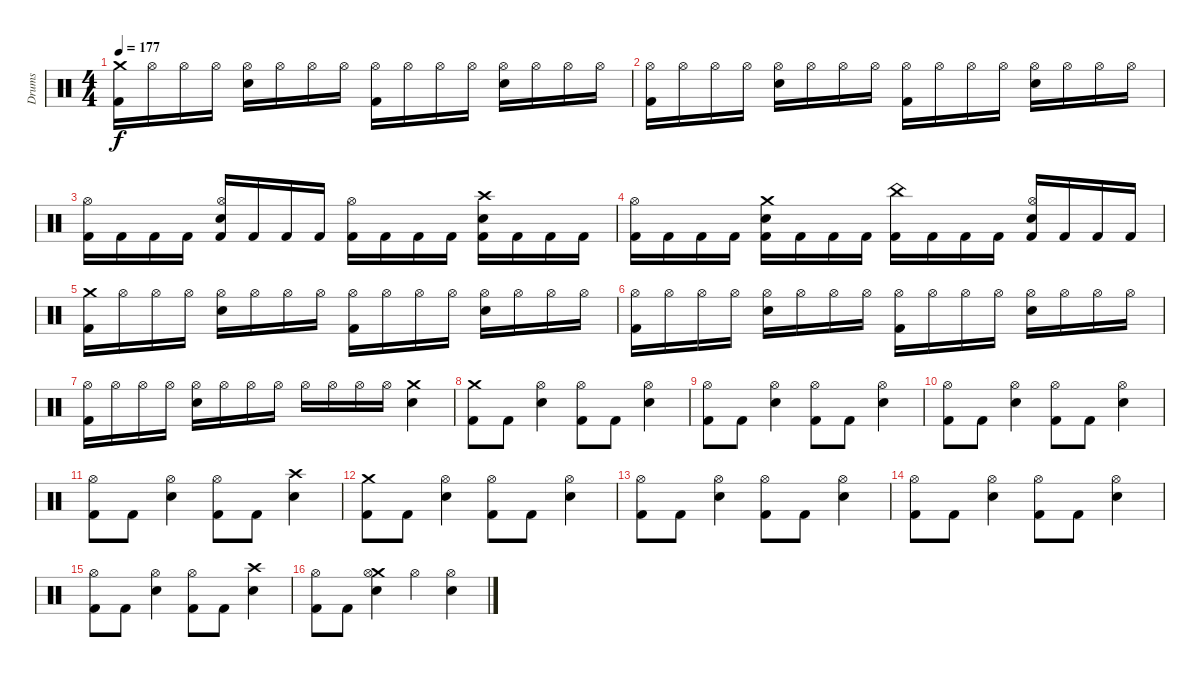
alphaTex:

\track ("Drums" "Drums") {solo instrument percussion}
\staff {score}
\articulation defaults
\ts (4 4)
\tempo 177
\clef neutral
\ks c
("Crash medium (hit)" "Kick (hit) 2").16{dy f} "Hi-Hat (open)".16 "Hi-Hat (open)".16 "Hi-Hat (open)".16 ("Hi-Hat (open)" "Snare (hit) 2").16 "Hi-Hat (open)".16 "Hi-Hat (open)".16 "Hi-Hat (open)".16 ("Hi-Hat (open)" "Kick (hit) 2").16 "Hi-Hat (open)".16 "Hi-Hat (open)".16 "Hi-Hat (open)".16 ("Hi-Hat (open)" "Snare (hit) 2").16 "Hi-Hat (open)".16 "Hi-Hat (open)".16 "Hi-Hat (open)".16 |
("Hi-Hat (open)" "Kick (hit) 2").16 "Hi-Hat (open)".16 "Hi-Hat (open)".16 "Hi-Hat (open)".16 ("Hi-Hat (open)" "Snare (hit) 2").16 "Hi-Hat (open)".16 "Hi-Hat (open)".16 "Hi-Hat (open)".16 ("Hi-Hat (open)" "Kick (hit) 2").16 "Hi-Hat (open)".16 "Hi-Hat (open)".16 "Hi-Hat (open)".16 ("Hi-Hat (open)" "Snare (hit) 2").16 "Hi-Hat (open)".16 "Hi-Hat (open)".16 "Hi-Hat (open)".16 |
("Hi-Hat (open)" "Kick (hit) 2").16 "Kick (hit) 2".16 "Kick (hit) 2".16 "Kick (hit) 2".16 ("Hi-Hat (open)" "Snare (hit) 2" "Kick (hit) 2").16 "Kick (hit) 2".16 "Kick (hit) 2".16 "Kick (hit) 2".16 ("Hi-Hat (open)" "Kick (hit) 2").16 "Kick (hit) 2".16 "Kick (hit) 2".16 "Kick (hit) 2".16 ("Crash high (hit)" "Snare (hit) 2" "Kick (hit) 2").16 "Kick (hit) 2".16 "Kick (hit) 2".16 "Kick (hit) 2".16 |
("Hi-Hat (open)" "Kick (hit) 2").16 "Kick (hit) 2".16 "Kick (hit) 2".16 "Kick (hit) 2".16 ("Crash medium (hit)" "Snare (hit) 2" "Kick (hit) 2").16 "Kick (hit) 2".16 "Kick (hit) 2".16 "Kick (hit) 2".16 ("China (hit)" "Kick (hit) 2").16 "Kick (hit) 2".16 "Kick (hit) 2".16 "Kick (hit) 2".16 ("Hi-Hat (open)" "Snare (hit) 2" "Kick (hit) 2").16 "Kick (hit) 2".16 "Kick (hit) 2".16 "Kick (hit) 2".16 |
("Crash medium (hit)" "Kick (hit) 2").16 "Hi-Hat (open)".16 "Hi-Hat (open)".16 "Hi-Hat (open)".16 ("Hi-Hat (open)" "Snare (hit) 2").16 "Hi-Hat (open)".16 "Hi-Hat (open)".16 "Hi-Hat (open)".16 ("Hi-Hat (open)" "Kick (hit) 2").16 "Hi-Hat (open)".16 "Hi-Hat (open)".16 "Hi-Hat (open)".16 ("Hi-Hat (open)" "Snare (hit) 2").16 "Hi-Hat (open)".16 "Hi-Hat (open)".16 "Hi-Hat (open)".16 |
("Hi-Hat (open)" "Kick (hit) 2").16 "Hi-Hat (open)".16 "Hi-Hat (open)".16 "Hi-Hat (open)".16 ("Hi-Hat (open)" "Snare (hit) 2").16 "Hi-Hat (open)".16 "Hi-Hat (open)".16 "Hi-Hat (open)".16 ("Hi-Hat (open)" "Kick (hit) 2").16 "Hi-Hat (open)".16 "Hi-Hat (open)".16 "Hi-Hat (open)".16 ("Hi-Hat (open)" "Snare (hit) 2").16 "Hi-Hat (open)".16 "Hi-Hat (open)".16 "Hi-Hat (open)".16 |
("Hi-Hat (open)" "Kick (hit) 2").16 "Hi-Hat (open)".16 "Hi-Hat (open)".16 "Hi-Hat (open)".16 ("Hi-Hat (open)" "Snare (hit) 2").16 "Hi-Hat (open)".16 "Hi-Hat (open)".16 "Hi-Hat (open)".16 "Hi-Hat (open)".16 "Hi-Hat (open)".16 "Hi-Hat (open)".16 "Hi-Hat (open)".16 ("Crash medium (hit)" "Snare (hit) 2").4 |
("Crash medium (hit)" "Kick (hit) 2").8 "Kick (hit) 2".8 ("Hi-Hat (open)" "Snare (hit) 2").4 ("Hi-Hat (open)" "Kick (hit) 2").8 "Kick (hit) 2".8 ("Hi-Hat (open)" "Snare (hit) 2").4 |
("Hi-Hat (open)" "Kick (hit) 2").8 "Kick (hit) 2".8 ("Hi-Hat (open)" "Snare (hit) 2").4 ("Hi-Hat (open)" "Kick (hit) 2").8 "Kick (hit) 2".8 ("Hi-Hat (open)" "Snare (hit) 2").4 |
("Hi-Hat (open)" "Kick (hit) 2").8 "Kick (hit) 2".8 ("Hi-Hat (open)" "Snare (hit) 2").4 ("Hi-Hat (open)" "Kick (hit) 2").8 "Kick (hit) 2".8 ("Hi-Hat (open)" "Snare (hit) 2").4 |
("Hi-Hat (open)" "Kick (hit) 2").8 "Kick (hit) 2".8 ("Hi-Hat (open)" "Snare (hit) 2").4 ("Hi-Hat (open)" "Kick (hit) 2").8 "Kick (hit) 2".8 ("Crash high (hit)" "Snare (hit) 2").4 |
("Crash medium (hit)" "Kick (hit) 2").8 "Kick (hit) 2".8 ("Hi-Hat (open)" "Snare (hit) 2").4 ("Hi-Hat (open)" "Kick (hit) 2").8 "Kick (hit) 2".8 ("Hi-Hat (open)" "Snare (hit) 2").4 |
("Hi-Hat (open)" "Kick (hit) 2").8 "Kick (hit) 2".8 ("Hi-Hat (open)" "Snare (hit) 2").4 ("Hi-Hat (open)" "Kick (hit) 2").8 "Kick (hit) 2".8 ("Hi-Hat (open)" "Snare (hit) 2").4 |
("Hi-Hat (open)" "Kick (hit) 2").8 "Kick (hit) 2".8 ("Hi-Hat (open)" "Snare (hit) 2").4 ("Hi-Hat (open)" "Kick (hit) 2").8 "Kick (hit) 2".8 ("Hi-Hat (open)" "Snare (hit) 2").4 |
("Hi-Hat (open)" "Kick (hit) 2").8 "Kick (hit) 2".8 ("Hi-Hat (open)" "Snare (hit) 2").4 ("Hi-Hat (open)" "Kick (hit) 2").8 "Kick (hit) 2".8 ("Crash high (hit)" "Snare (hit) 2").4 |
("Hi-Hat (open)" "Kick (hit) 2").8 "Kick (hit) 2".8 ("Crash medium (hit)" "Hi-Hat (open)" "Snare (hit) 2").4 "Hi-Hat (open)".4 ("Hi-Hat (open)" "Snare (hit) 2").4
